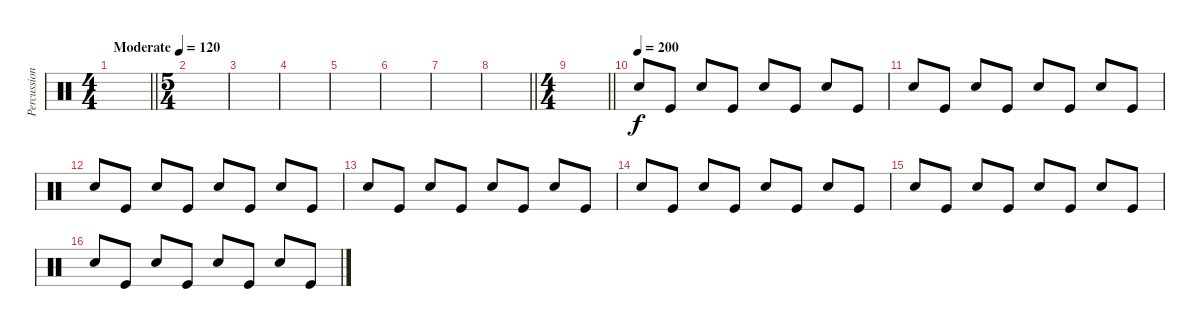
\track ("Percussion" "Percussion") {instrument percussion}
\staff {score}
\articulation defaults
\ts (4 4)
\tempo (120 "Moderate")
\clef neutral
\barLineRight lightlight
\ks c
|
\ts (5 4)
|
|
|
|
|
|
\barLineRight lightlight
|
\ts (4 4)
\barLineRight lightlight
|
\tempo (200)
"Snare (hit) 2".8 "Kick (hit)".8 "Snare (hit) 2".8 "Kick (hit)".8 "Snare (hit) 2".8 "Kick (hit)".8 "Snare (hit) 2".8 "Kick (hit)".8 |
"Snare (hit) 2".8 "Kick (hit)".8 "Snare (hit) 2".8 "Kick (hit)".8 "Snare (hit) 2".8 "Kick (hit)".8 "Snare (hit) 2".8 "Kick (hit)".8 |
"Snare (hit) 2".8 "Kick (hit)".8 "Snare (hit) 2".8 "Kick (hit)".8 "Snare (hit) 2".8 "Kick (hit)".8 "Snare (hit) 2".8 "Kick (hit)".8 |
"Snare (hit) 2".8 "Kick (hit)".8 "Snare (hit) 2".8 "Kick (hit)".8 "Snare (hit) 2".8 "Kick (hit)".8 "Snare (hit) 2".8 "Kick (hit)".8 |
"Snare (hit) 2".8 "Kick (hit)".8 "Snare (hit) 2".8 "Kick (hit)".8 "Snare (hit) 2".8 "Kick (hit)".8 "Snare (hit) 2".8 "Kick (hit)".8 |
"Snare (hit) 2".8 "Kick (hit)".8 "Snare (hit) 2".8 "Kick (hit)".8 "Snare (hit) 2".8 "Kick (hit)".8 "Snare (hit) 2".8 "Kick (hit)".8 |
"Snare (hit) 2".8 "Kick (hit)".8 "Snare (hit) 2".8 "Kick (hit)".8 "Snare (hit) 2".8 "Kick (hit)".8 "Snare (hit) 2".8 "Kick (hit)".8
